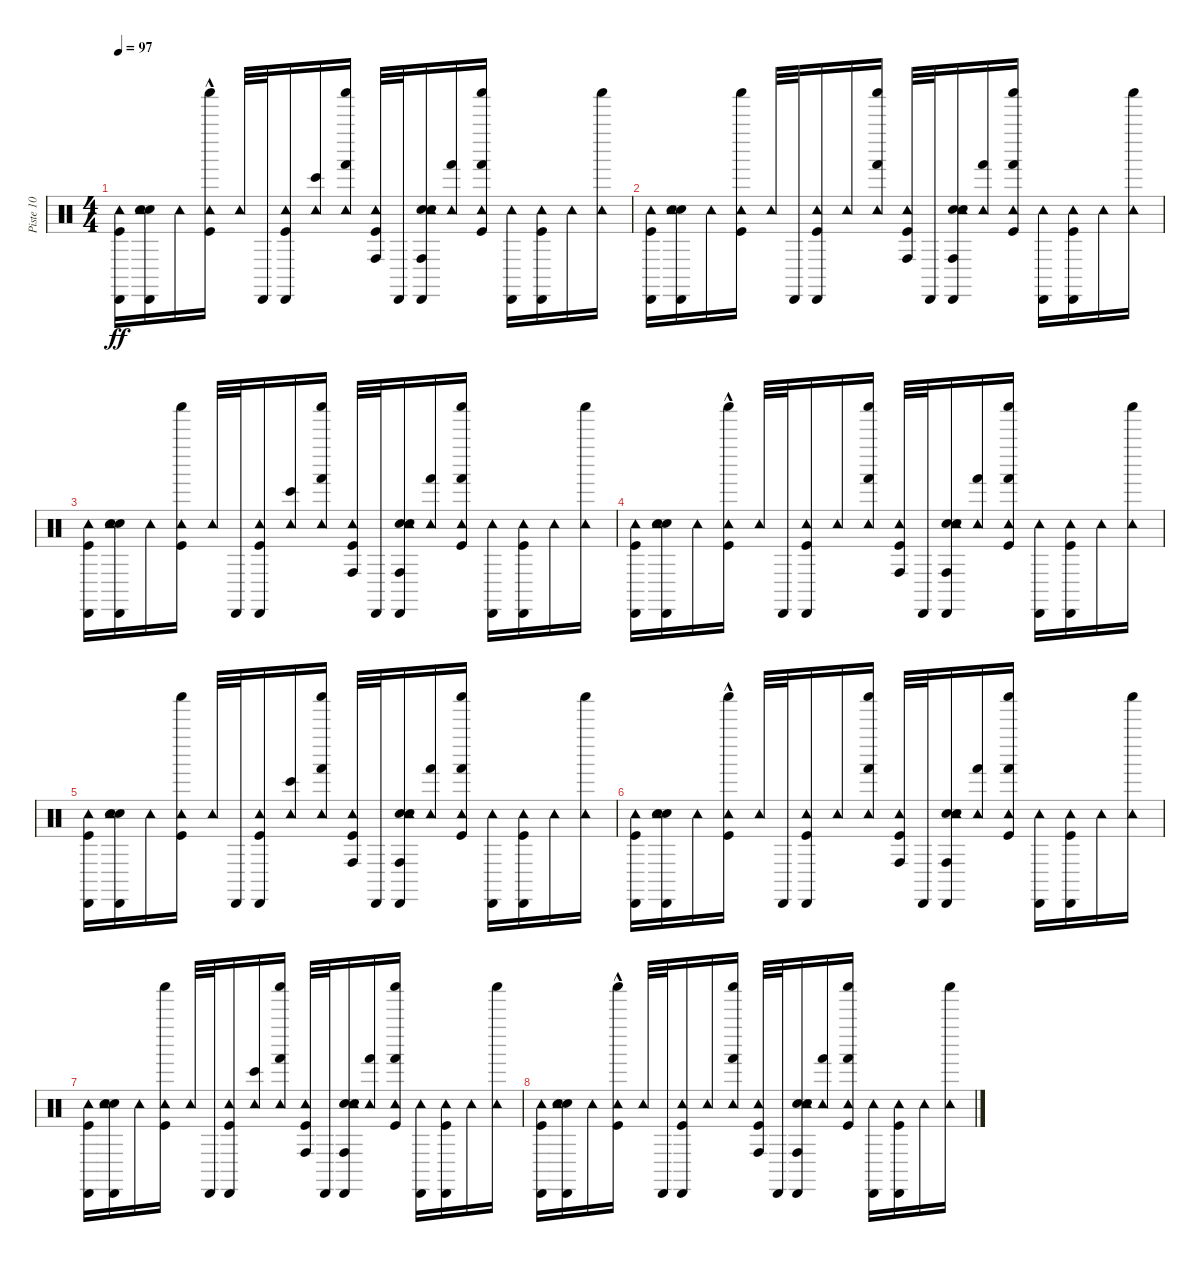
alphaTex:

\track ("Piste 10" "Piste 10") {instrument percussion}
\staff {score}
\articulation defaults
\ts (4 4)
\tempo 97
\clef neutral
\ks c
("Cabasa (hit)" "Kick (hit)" "Tambourine (hit)").16{dy ff} ("Cabasa (hit)" "Hand Clap (hit)" "Electric Snare (hit)" "Tambourine (hit)").16 "Tambourine (hit)".16 ("Shaker (hit)"{hac} "Kick (hit)" "Tambourine (hit)").16 "Tambourine (hit)".32 "Cabasa (hit)".32 ("Cabasa (hit)" "Kick (hit)" "Tambourine (hit)").16 ("Bongo High (hit)" "Tambourine (hit)").16 ("Hand (hit)" "Shaker (hit)" "Tambourine (hit)").16 ("Conga high (hit)" "Kick (hit)" "Tambourine (hit)").32 "Cabasa (hit)".32 ("Conga high (hit)" "Cabasa (hit)" "Hand Clap (hit)" "Electric Snare (hit)" "Tambourine (hit)").16 ("Hand (hit)" "Tambourine (hit)").16 ("Hand (hit)" "Shaker (hit)" "Kick (hit)" "Tambourine (hit)").16 ("Cabasa (hit)" "Tambourine (hit)").16 ("Cabasa (hit)" "Kick (hit)" "Tambourine (hit)").16 "Tambourine (hit)".16 ("Shaker (hit)" "Tambourine (hit)").16 |
("Cabasa (hit)" "Kick (hit)" "Tambourine (hit)").16 ("Cabasa (hit)" "Hand Clap (hit)" "Electric Snare (hit)" "Tambourine (hit)").16 "Tambourine (hit)".16 ("Shaker (hit)" "Kick (hit)" "Tambourine (hit)").16 "Tambourine (hit)".32 "Cabasa (hit)".32 ("Cabasa (hit)" "Kick (hit)" "Tambourine (hit)").16 "Tambourine (hit)".16 ("Hand (hit)" "Shaker (hit)" "Tambourine (hit)").16 ("Conga high (hit)" "Kick (hit)" "Tambourine (hit)").32 "Cabasa (hit)".32 ("Conga high (hit)" "Cabasa (hit)" "Hand Clap (hit)" "Electric Snare (hit)" "Tambourine (hit)").16 ("Hand (hit)" "Tambourine (hit)").16 ("Hand (hit)" "Shaker (hit)" "Kick (hit)" "Tambourine (hit)").16 ("Cabasa (hit)" "Tambourine (hit)").16 ("Cabasa (hit)" "Kick (hit)" "Tambourine (hit)").16 "Tambourine (hit)".16 ("Shaker (hit)" "Tambourine (hit)").16 |
("Cabasa (hit)" "Kick (hit)" "Tambourine (hit)").16 ("Cabasa (hit)" "Hand Clap (hit)" "Electric Snare (hit)" "Tambourine (hit)").16 "Tambourine (hit)".16 ("Shaker (hit)" "Kick (hit)" "Tambourine (hit)").16 "Tambourine (hit)".32 "Cabasa (hit)".32 ("Cabasa (hit)" "Kick (hit)" "Tambourine (hit)").16 ("Bongo High (hit)" "Tambourine (hit)").16 ("Hand (hit)" "Shaker (hit)" "Tambourine (hit)").16 ("Conga high (hit)" "Kick (hit)" "Tambourine (hit)").32 "Cabasa (hit)".32 ("Conga high (hit)" "Cabasa (hit)" "Hand Clap (hit)" "Electric Snare (hit)" "Tambourine (hit)").16 ("Hand (hit)" "Tambourine (hit)").16 ("Hand (hit)" "Shaker (hit)" "Kick (hit)" "Tambourine (hit)").16 ("Cabasa (hit)" "Tambourine (hit)").16 ("Cabasa (hit)" "Kick (hit)" "Tambourine (hit)").16 "Tambourine (hit)".16 ("Shaker (hit)" "Tambourine (hit)").16 |
("Cabasa (hit)" "Kick (hit)" "Tambourine (hit)").16 ("Cabasa (hit)" "Hand Clap (hit)" "Electric Snare (hit)" "Tambourine (hit)").16 "Tambourine (hit)".16 ("Shaker (hit)"{hac} "Kick (hit)" "Tambourine (hit)").16 "Tambourine (hit)".32 "Cabasa (hit)".32 ("Cabasa (hit)" "Kick (hit)" "Tambourine (hit)").16 "Tambourine (hit)".16 ("Hand (hit)" "Shaker (hit)" "Tambourine (hit)").16 ("Conga high (hit)" "Kick (hit)" "Tambourine (hit)").32 "Cabasa (hit)".32 ("Conga high (hit)" "Cabasa (hit)" "Hand Clap (hit)" "Electric Snare (hit)" "Tambourine (hit)").16 ("Hand (hit)" "Tambourine (hit)").16 ("Hand (hit)" "Shaker (hit)" "Kick (hit)" "Tambourine (hit)").16 ("Cabasa (hit)" "Tambourine (hit)").16 ("Cabasa (hit)" "Kick (hit)" "Tambourine (hit)").16 "Tambourine (hit)".16 ("Shaker (hit)" "Tambourine (hit)").16 |
("Cabasa (hit)" "Kick (hit)" "Tambourine (hit)").16 ("Cabasa (hit)" "Hand Clap (hit)" "Electric Snare (hit)" "Tambourine (hit)").16 "Tambourine (hit)".16 ("Shaker (hit)" "Kick (hit)" "Tambourine (hit)").16 "Tambourine (hit)".32 "Cabasa (hit)".32 ("Cabasa (hit)" "Kick (hit)" "Tambourine (hit)").16 ("Bongo High (hit)" "Tambourine (hit)").16 ("Hand (hit)" "Shaker (hit)" "Tambourine (hit)").16 ("Conga high (hit)" "Kick (hit)" "Tambourine (hit)").32 "Cabasa (hit)".32 ("Conga high (hit)" "Cabasa (hit)" "Hand Clap (hit)" "Electric Snare (hit)" "Tambourine (hit)").16 ("Hand (hit)" "Tambourine (hit)").16 ("Hand (hit)" "Shaker (hit)" "Kick (hit)" "Tambourine (hit)").16 ("Cabasa (hit)" "Tambourine (hit)").16 ("Cabasa (hit)" "Kick (hit)" "Tambourine (hit)").16 "Tambourine (hit)".16 ("Shaker (hit)" "Tambourine (hit)").16 |
("Cabasa (hit)" "Kick (hit)" "Tambourine (hit)").16 ("Cabasa (hit)" "Hand Clap (hit)" "Electric Snare (hit)" "Tambourine (hit)").16 "Tambourine (hit)".16 ("Shaker (hit)"{hac} "Kick (hit)" "Tambourine (hit)").16 "Tambourine (hit)".32 "Cabasa (hit)".32 ("Cabasa (hit)" "Kick (hit)" "Tambourine (hit)").16 "Tambourine (hit)".16 ("Hand (hit)" "Shaker (hit)" "Tambourine (hit)").16 ("Conga high (hit)" "Kick (hit)" "Tambourine (hit)").32 "Cabasa (hit)".32 ("Conga high (hit)" "Cabasa (hit)" "Hand Clap (hit)" "Electric Snare (hit)" "Tambourine (hit)").16 ("Hand (hit)" "Tambourine (hit)").16 ("Hand (hit)" "Shaker (hit)" "Kick (hit)" "Tambourine (hit)").16 ("Cabasa (hit)" "Tambourine (hit)").16 ("Cabasa (hit)" "Kick (hit)" "Tambourine (hit)").16 "Tambourine (hit)".16 ("Shaker (hit)" "Tambourine (hit)").16 |
("Cabasa (hit)" "Kick (hit)" "Tambourine (hit)").16 ("Cabasa (hit)" "Hand Clap (hit)" "Electric Snare (hit)" "Tambourine (hit)").16 "Tambourine (hit)".16 ("Shaker (hit)" "Kick (hit)" "Tambourine (hit)").16 "Tambourine (hit)".32 "Cabasa (hit)".32 ("Cabasa (hit)" "Kick (hit)" "Tambourine (hit)").16 ("Bongo High (hit)" "Tambourine (hit)").16 ("Hand (hit)" "Shaker (hit)" "Tambourine (hit)").16 ("Conga high (hit)" "Kick (hit)" "Tambourine (hit)").32 "Cabasa (hit)".32 ("Conga high (hit)" "Cabasa (hit)" "Hand Clap (hit)" "Electric Snare (hit)" "Tambourine (hit)").16 ("Hand (hit)" "Tambourine (hit)").16 ("Hand (hit)" "Shaker (hit)" "Kick (hit)" "Tambourine (hit)").16 ("Cabasa (hit)" "Tambourine (hit)").16 ("Cabasa (hit)" "Kick (hit)" "Tambourine (hit)").16 "Tambourine (hit)".16 ("Shaker (hit)" "Tambourine (hit)").16 |
("Cabasa (hit)" "Kick (hit)" "Tambourine (hit)").16 ("Cabasa (hit)" "Hand Clap (hit)" "Electric Snare (hit)" "Tambourine (hit)").16 "Tambourine (hit)".16 ("Shaker (hit)"{hac} "Kick (hit)" "Tambourine (hit)").16 "Tambourine (hit)".32 "Cabasa (hit)".32 ("Cabasa (hit)" "Kick (hit)" "Tambourine (hit)").16 "Tambourine (hit)".16 ("Hand (hit)" "Shaker (hit)" "Tambourine (hit)").16 ("Conga high (hit)" "Kick (hit)" "Tambourine (hit)").32 "Cabasa (hit)".32 ("Conga high (hit)" "Cabasa (hit)" "Hand Clap (hit)" "Electric Snare (hit)" "Tambourine (hit)").16 ("Hand (hit)" "Tambourine (hit)").16 ("Hand (hit)" "Shaker (hit)" "Kick (hit)" "Tambourine (hit)").16 ("Cabasa (hit)" "Tambourine (hit)").16 ("Cabasa (hit)" "Kick (hit)" "Tambourine (hit)").16 "Tambourine (hit)".16 ("Shaker (hit)" "Tambourine (hit)").16
